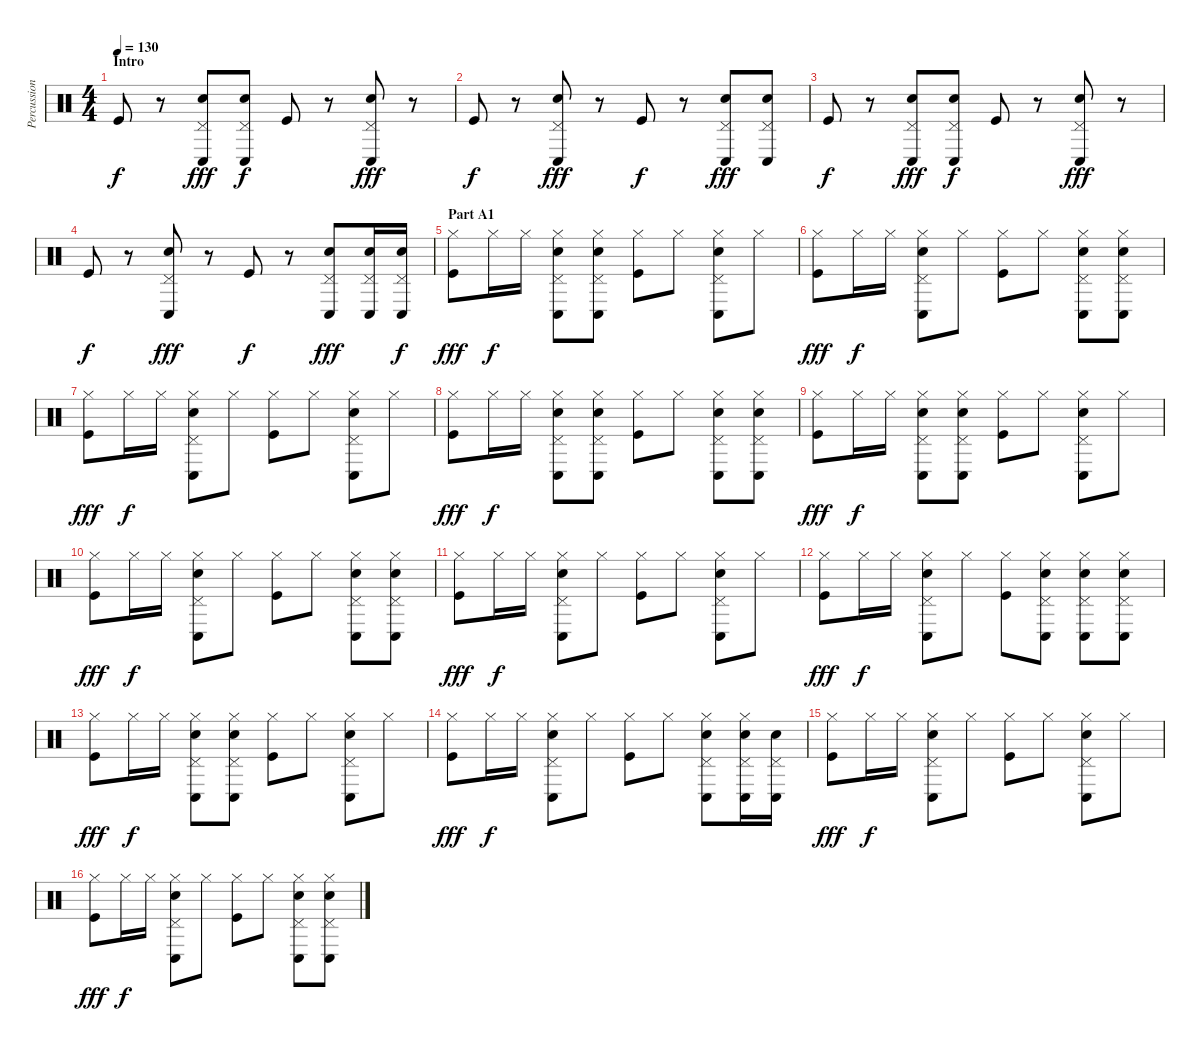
\track ("Percussion" "Percussion") {instrument percussion}
\staff {score}
\articulation defaults
\ts (4 4)
\section ("" "Intro")
\tempo 130
\clef neutral
\ks c "Kick (hit)".8{dy f}
r.8 ("Pedal Hi-Hat (hit)" "Conga low (hit)" "Electric Snare (hit)").8{dy fff} ("Pedal Hi-Hat (hit)" "Conga low (hit)" "Electric Snare (hit)").8{dy f} "Kick (hit)".8 r.8 ("Pedal Hi-Hat (hit)" "Conga low (hit)" "Electric Snare (hit)").8{dy fff} r.8 |
"Kick (hit)".8{dy f} r.8 ("Pedal Hi-Hat (hit)" "Conga low (hit)" "Electric Snare (hit)").8{dy fff} r.8 "Kick (hit)".8{dy f} r.8 ("Pedal Hi-Hat (hit)" "Conga low (hit)" "Electric Snare (hit)").8{dy fff} ("Pedal Hi-Hat (hit)" "Conga low (hit)" "Electric Snare (hit)").8 |
"Kick (hit)".8{dy f} r.8 ("Pedal Hi-Hat (hit)" "Conga low (hit)" "Electric Snare (hit)").8{dy fff} ("Pedal Hi-Hat (hit)" "Conga low (hit)" "Electric Snare (hit)").8{dy f} "Kick (hit)".8 r.8 ("Pedal Hi-Hat (hit)" "Conga low (hit)" "Electric Snare (hit)").8{dy fff} r.8 |
"Kick (hit)".8{dy f} r.8 ("Pedal Hi-Hat (hit)" "Conga low (hit)" "Electric Snare (hit)").8{dy fff} r.8 "Kick (hit)".8{dy f} r.8 ("Pedal Hi-Hat (hit)" "Conga low (hit)" "Electric Snare (hit)").8{dy fff} ("Pedal Hi-Hat (hit)" "Conga low (hit)" "Electric Snare (hit)").16 ("Pedal Hi-Hat (hit)" "Conga low (hit)" "Electric Snare (hit)").16{dy f} |
\section ("" "Part A1")
("Hi-Hat (closed)" "Kick (hit)").8{dy fff} "Hi-Hat (closed)".16{dy f} "Hi-Hat (closed)".16 ("Hi-Hat (closed)" "Pedal Hi-Hat (hit)" "Conga low (hit)" "Electric Snare (hit)").8 ("Hi-Hat (closed)" "Pedal Hi-Hat (hit)" "Conga low (hit)" "Electric Snare (hit)").8 ("Hi-Hat (closed)" "Kick (hit)").8 "Hi-Hat (closed)".8 ("Hi-Hat (closed)" "Pedal Hi-Hat (hit)" "Conga low (hit)" "Electric Snare (hit)").8 "Hi-Hat (closed)".8 |
("Hi-Hat (closed)" "Kick (hit)").8{dy fff} "Hi-Hat (closed)".16{dy f} "Hi-Hat (closed)".16 ("Hi-Hat (closed)" "Pedal Hi-Hat (hit)" "Conga low (hit)" "Electric Snare (hit)").8 "Hi-Hat (closed)".8 ("Hi-Hat (closed)" "Kick (hit)").8 "Hi-Hat (closed)".8 ("Hi-Hat (closed)" "Pedal Hi-Hat (hit)" "Conga low (hit)" "Electric Snare (hit)").8 ("Hi-Hat (closed)" "Pedal Hi-Hat (hit)" "Conga low (hit)" "Electric Snare (hit)").8 |
("Hi-Hat (closed)" "Kick (hit)").8{dy fff} "Hi-Hat (closed)".16{dy f} "Hi-Hat (closed)".16 ("Hi-Hat (closed)" "Pedal Hi-Hat (hit)" "Conga low (hit)" "Electric Snare (hit)").8 "Hi-Hat (closed)".8 ("Hi-Hat (closed)" "Kick (hit)").8 "Hi-Hat (closed)".8 ("Hi-Hat (closed)" "Pedal Hi-Hat (hit)" "Conga low (hit)" "Electric Snare (hit)").8 "Hi-Hat (closed)".8 |
("Hi-Hat (closed)" "Kick (hit)").8{dy fff} "Hi-Hat (closed)".16{dy f} "Hi-Hat (closed)".16 ("Hi-Hat (closed)" "Pedal Hi-Hat (hit)" "Conga low (hit)" "Electric Snare (hit)").8 ("Hi-Hat (closed)" "Pedal Hi-Hat (hit)" "Conga low (hit)" "Electric Snare (hit)").8 ("Hi-Hat (closed)" "Kick (hit)").8 "Hi-Hat (closed)".8 ("Hi-Hat (closed)" "Pedal Hi-Hat (hit)" "Conga low (hit)" "Electric Snare (hit)").8 ("Hi-Hat (closed)" "Pedal Hi-Hat (hit)" "Conga low (hit)" "Electric Snare (hit)").8 |
("Hi-Hat (closed)" "Kick (hit)").8{dy fff} "Hi-Hat (closed)".16{dy f} "Hi-Hat (closed)".16 ("Hi-Hat (closed)" "Pedal Hi-Hat (hit)" "Conga low (hit)" "Electric Snare (hit)").8 ("Hi-Hat (closed)" "Pedal Hi-Hat (hit)" "Conga low (hit)" "Electric Snare (hit)").8 ("Hi-Hat (closed)" "Kick (hit)").8 "Hi-Hat (closed)".8 ("Hi-Hat (closed)" "Pedal Hi-Hat (hit)" "Conga low (hit)" "Electric Snare (hit)").8 "Hi-Hat (closed)".8 |
("Hi-Hat (closed)" "Kick (hit)").8{dy fff} "Hi-Hat (closed)".16{dy f} "Hi-Hat (closed)".16 ("Hi-Hat (closed)" "Pedal Hi-Hat (hit)" "Conga low (hit)" "Electric Snare (hit)").8 "Hi-Hat (closed)".8 ("Hi-Hat (closed)" "Kick (hit)").8 "Hi-Hat (closed)".8 ("Hi-Hat (closed)" "Pedal Hi-Hat (hit)" "Conga low (hit)" "Electric Snare (hit)").8 ("Hi-Hat (closed)" "Pedal Hi-Hat (hit)" "Conga low (hit)" "Electric Snare (hit)").8 |
("Hi-Hat (closed)" "Kick (hit)").8{dy fff} "Hi-Hat (closed)".16{dy f} "Hi-Hat (closed)".16 ("Hi-Hat (closed)" "Pedal Hi-Hat (hit)" "Conga low (hit)" "Electric Snare (hit)").8 "Hi-Hat (closed)".8 ("Hi-Hat (closed)" "Kick (hit)").8 "Hi-Hat (closed)".8 ("Hi-Hat (closed)" "Pedal Hi-Hat (hit)" "Conga low (hit)" "Electric Snare (hit)").8 "Hi-Hat (closed)".8 |
("Hi-Hat (closed)" "Kick (hit)").8{dy fff} "Hi-Hat (closed)".16{dy f} "Hi-Hat (closed)".16 ("Hi-Hat (closed)" "Pedal Hi-Hat (hit)" "Conga low (hit)" "Electric Snare (hit)").8 "Hi-Hat (closed)".8 ("Hi-Hat (closed)" "Kick (hit)").8 ("Hi-Hat (closed)" "Pedal Hi-Hat (hit)" "Conga low (hit)" "Electric Snare (hit)").8 ("Hi-Hat (closed)" "Pedal Hi-Hat (hit)" "Conga low (hit)" "Electric Snare (hit)").8 ("Hi-Hat (closed)" "Pedal Hi-Hat (hit)" "Conga low (hit)" "Electric Snare (hit)").8 |
("Hi-Hat (closed)" "Kick (hit)").8{dy fff} "Hi-Hat (closed)".16{dy f} "Hi-Hat (closed)".16 ("Hi-Hat (closed)" "Pedal Hi-Hat (hit)" "Conga low (hit)" "Electric Snare (hit)").8 ("Hi-Hat (closed)" "Pedal Hi-Hat (hit)" "Conga low (hit)" "Electric Snare (hit)").8 ("Hi-Hat (closed)" "Kick (hit)").8 "Hi-Hat (closed)".8 ("Hi-Hat (closed)" "Pedal Hi-Hat (hit)" "Conga low (hit)" "Electric Snare (hit)").8 "Hi-Hat (closed)".8 |
("Hi-Hat (closed)" "Kick (hit)").8{dy fff} "Hi-Hat (closed)".16{dy f} "Hi-Hat (closed)".16 ("Hi-Hat (closed)" "Pedal Hi-Hat (hit)" "Conga low (hit)" "Electric Snare (hit)").8 "Hi-Hat (closed)".8 ("Hi-Hat (closed)" "Kick (hit)").8 "Hi-Hat (closed)".8 ("Hi-Hat (closed)" "Pedal Hi-Hat (hit)" "Conga low (hit)" "Electric Snare (hit)").8 ("Hi-Hat (closed)" "Pedal Hi-Hat (hit)" "Conga low (hit)" "Electric Snare (hit)").16 ("Pedal Hi-Hat (hit)" "Conga low (hit)" "Electric Snare (hit)").16 |
("Hi-Hat (closed)" "Kick (hit)").8{dy fff} "Hi-Hat (closed)".16{dy f} "Hi-Hat (closed)".16 ("Hi-Hat (closed)" "Pedal Hi-Hat (hit)" "Conga low (hit)" "Electric Snare (hit)").8 "Hi-Hat (closed)".8 ("Hi-Hat (closed)" "Kick (hit)").8 "Hi-Hat (closed)".8 ("Hi-Hat (closed)" "Pedal Hi-Hat (hit)" "Conga low (hit)" "Electric Snare (hit)").8 "Hi-Hat (closed)".8 |
("Hi-Hat (closed)" "Kick (hit)").8{dy fff} "Hi-Hat (closed)".16{dy f} "Hi-Hat (closed)".16 ("Hi-Hat (closed)" "Pedal Hi-Hat (hit)" "Conga low (hit)" "Electric Snare (hit)").8 "Hi-Hat (closed)".8 ("Hi-Hat (closed)" "Kick (hit)").8 "Hi-Hat (closed)".8 ("Hi-Hat (closed)" "Pedal Hi-Hat (hit)" "Conga low (hit)" "Electric Snare (hit)").8 ("Hi-Hat (closed)" "Pedal Hi-Hat (hit)" "Conga low (hit)" "Electric Snare (hit)").8
